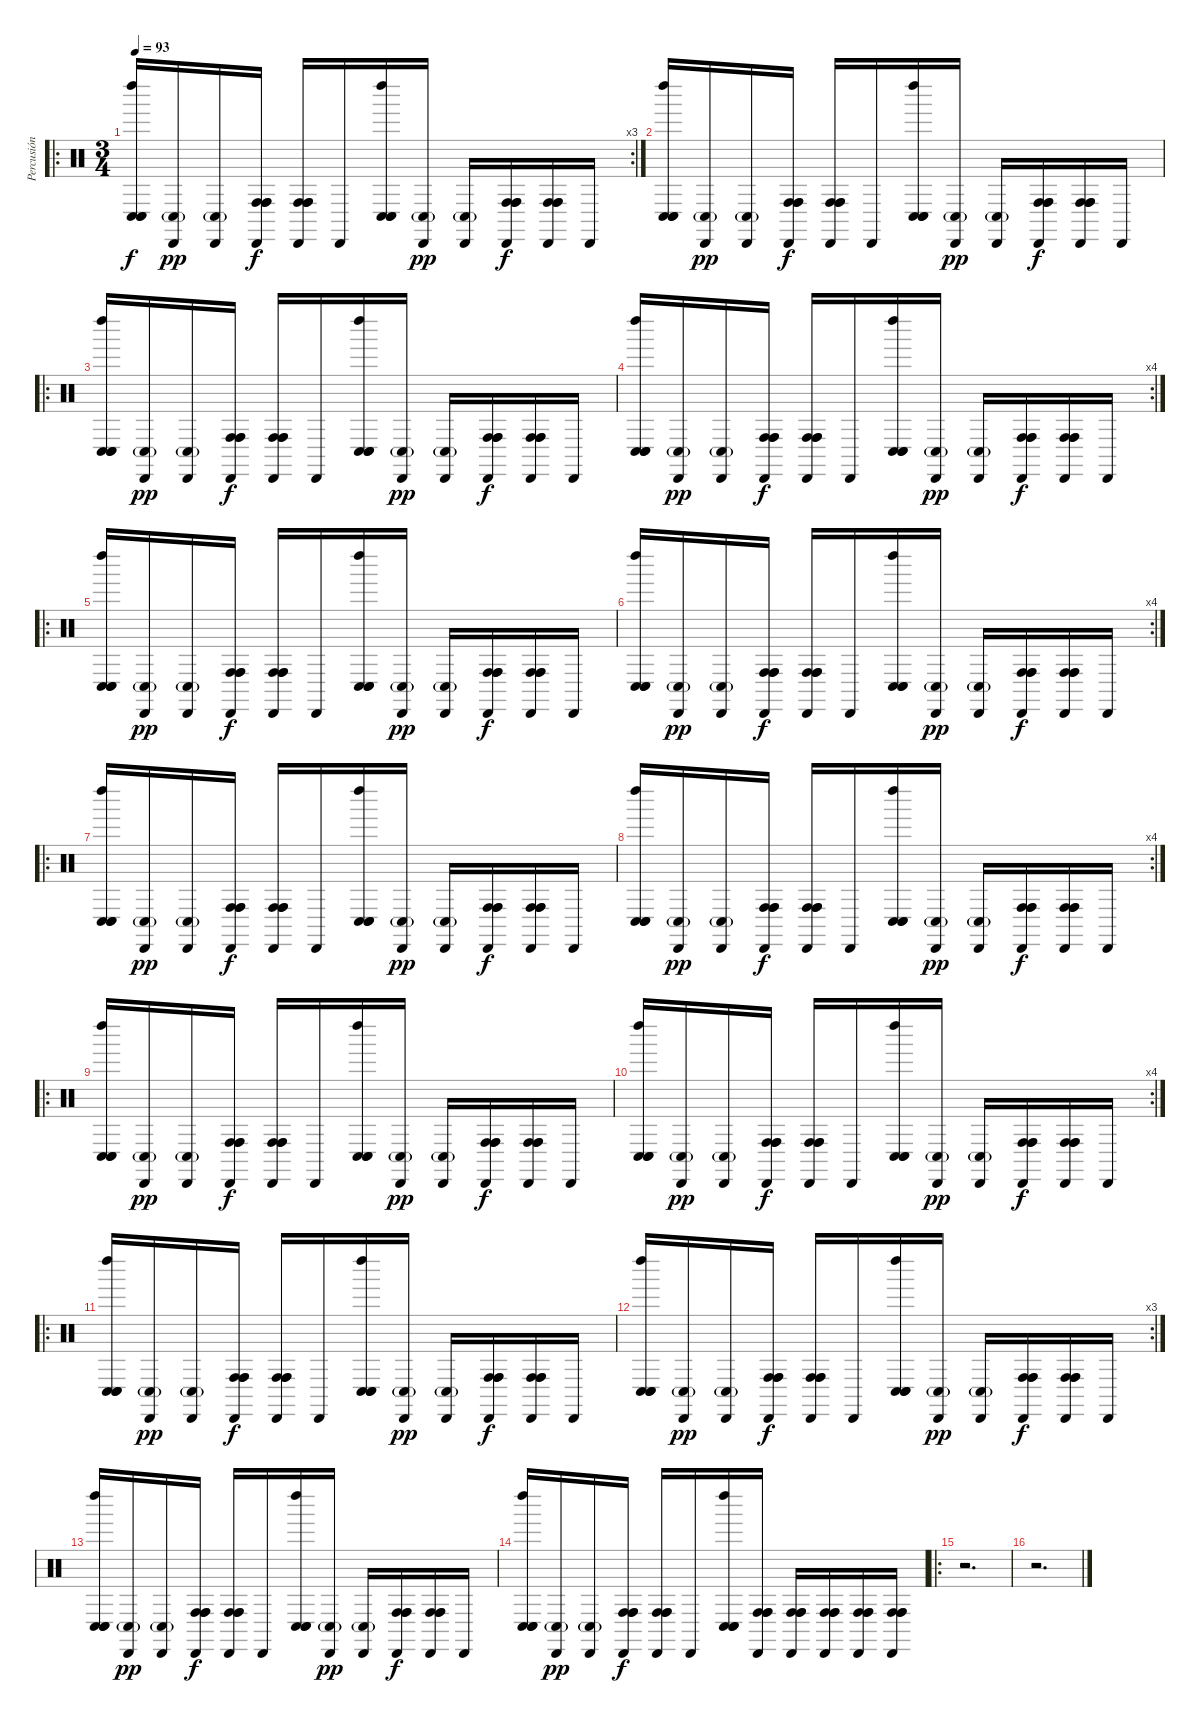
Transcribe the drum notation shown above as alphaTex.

\track ("Percusión" "Percusión") {instrument percussion}
\staff {score}
\articulation defaults
\ro
\rc 3
\ts (3 4)
\tempo 93
\clef neutral
\ks c
("Left Maraca (hit)" "Conga low (hit)" "Conga low (hit)" "Conga low (hit)").16{dy f} ("Cabasa (hit)" "Conga low (hit)"{g}).16{dy pp} ("Cabasa (hit)" "Conga low (hit)"{g}).16 ("Cabasa (hit)" "Conga high (hit)" "Conga high (hit)" "Conga high (hit)").16{dy f} ("Cabasa (hit)" "Conga high (hit)" "Conga high (hit)" "Conga high (hit)").16 "Cabasa (hit)".16 ("Left Maraca (hit)" "Conga low (hit)" "Conga low (hit)" "Conga low (hit)").16 ("Cabasa (hit)" "Conga low (hit)"{g}).16{dy pp} ("Cabasa (hit)" "Conga low (hit)"{g}).16 ("Cabasa (hit)" "Conga high (hit)" "Conga high (hit)" "Conga high (hit)").16{dy f} ("Cabasa (hit)" "Conga high (hit)" "Conga high (hit)" "Conga high (hit)").16 "Cabasa (hit)".16 |
("Left Maraca (hit)" "Conga low (hit)" "Conga low (hit)" "Conga low (hit)").16 ("Cabasa (hit)" "Conga low (hit)"{g}).16{dy pp} ("Cabasa (hit)" "Conga low (hit)"{g}).16 ("Cabasa (hit)" "Conga high (hit)" "Conga high (hit)" "Conga high (hit)").16{dy f} ("Cabasa (hit)" "Conga high (hit)" "Conga high (hit)" "Conga high (hit)").16 "Cabasa (hit)".16 ("Left Maraca (hit)" "Conga low (hit)" "Conga low (hit)" "Conga low (hit)").16 ("Cabasa (hit)" "Conga low (hit)"{g}).16{dy pp} ("Cabasa (hit)" "Conga low (hit)"{g}).16 ("Cabasa (hit)" "Conga high (hit)" "Conga high (hit)" "Conga high (hit)").16{dy f} ("Cabasa (hit)" "Conga high (hit)" "Conga high (hit)" "Conga high (hit)").16 "Cabasa (hit)".16 |
\ro
("Left Maraca (hit)" "Conga low (hit)" "Conga low (hit)" "Conga low (hit)").16 ("Cabasa (hit)" "Conga low (hit)"{g}).16{dy pp} ("Cabasa (hit)" "Conga low (hit)"{g}).16 ("Cabasa (hit)" "Conga high (hit)" "Conga high (hit)" "Conga high (hit)").16{dy f} ("Cabasa (hit)" "Conga high (hit)" "Conga high (hit)" "Conga high (hit)").16 "Cabasa (hit)".16 ("Left Maraca (hit)" "Conga low (hit)" "Conga low (hit)" "Conga low (hit)").16 ("Cabasa (hit)" "Conga low (hit)"{g}).16{dy pp} ("Cabasa (hit)" "Conga low (hit)"{g}).16 ("Cabasa (hit)" "Conga high (hit)" "Conga high (hit)" "Conga high (hit)").16{dy f} ("Cabasa (hit)" "Conga high (hit)" "Conga high (hit)" "Conga high (hit)").16 "Cabasa (hit)".16 |
\rc 4
("Left Maraca (hit)" "Conga low (hit)" "Conga low (hit)" "Conga low (hit)").16 ("Cabasa (hit)" "Conga low (hit)"{g}).16{dy pp} ("Cabasa (hit)" "Conga low (hit)"{g}).16 ("Cabasa (hit)" "Conga high (hit)" "Conga high (hit)" "Conga high (hit)").16{dy f} ("Cabasa (hit)" "Conga high (hit)" "Conga high (hit)" "Conga high (hit)").16 "Cabasa (hit)".16 ("Left Maraca (hit)" "Conga low (hit)" "Conga low (hit)" "Conga low (hit)").16 ("Cabasa (hit)" "Conga low (hit)"{g}).16{dy pp} ("Cabasa (hit)" "Conga low (hit)"{g}).16 ("Cabasa (hit)" "Conga high (hit)" "Conga high (hit)" "Conga high (hit)").16{dy f} ("Cabasa (hit)" "Conga high (hit)" "Conga high (hit)" "Conga high (hit)").16 "Cabasa (hit)".16 |
\ro
("Left Maraca (hit)" "Conga low (hit)" "Conga low (hit)" "Conga low (hit)").16 ("Cabasa (hit)" "Conga low (hit)"{g}).16{dy pp} ("Cabasa (hit)" "Conga low (hit)"{g}).16 ("Cabasa (hit)" "Conga high (hit)" "Conga high (hit)" "Conga high (hit)").16{dy f} ("Cabasa (hit)" "Conga high (hit)" "Conga high (hit)" "Conga high (hit)").16 "Cabasa (hit)".16 ("Left Maraca (hit)" "Conga low (hit)" "Conga low (hit)" "Conga low (hit)").16 ("Cabasa (hit)" "Conga low (hit)"{g}).16{dy pp} ("Cabasa (hit)" "Conga low (hit)"{g}).16 ("Cabasa (hit)" "Conga high (hit)" "Conga high (hit)" "Conga high (hit)").16{dy f} ("Cabasa (hit)" "Conga high (hit)" "Conga high (hit)" "Conga high (hit)").16 "Cabasa (hit)".16 |
\rc 4
("Left Maraca (hit)" "Conga low (hit)" "Conga low (hit)" "Conga low (hit)").16 ("Cabasa (hit)" "Conga low (hit)"{g}).16{dy pp} ("Cabasa (hit)" "Conga low (hit)"{g}).16 ("Cabasa (hit)" "Conga high (hit)" "Conga high (hit)" "Conga high (hit)").16{dy f} ("Cabasa (hit)" "Conga high (hit)" "Conga high (hit)" "Conga high (hit)").16 "Cabasa (hit)".16 ("Left Maraca (hit)" "Conga low (hit)" "Conga low (hit)" "Conga low (hit)").16 ("Cabasa (hit)" "Conga low (hit)"{g}).16{dy pp} ("Cabasa (hit)" "Conga low (hit)"{g}).16 ("Cabasa (hit)" "Conga high (hit)" "Conga high (hit)" "Conga high (hit)").16{dy f} ("Cabasa (hit)" "Conga high (hit)" "Conga high (hit)" "Conga high (hit)").16 "Cabasa (hit)".16 |
\ro
("Left Maraca (hit)" "Conga low (hit)" "Conga low (hit)" "Conga low (hit)").16 ("Cabasa (hit)" "Conga low (hit)"{g}).16{dy pp} ("Cabasa (hit)" "Conga low (hit)"{g}).16 ("Cabasa (hit)" "Conga high (hit)" "Conga high (hit)" "Conga high (hit)").16{dy f} ("Cabasa (hit)" "Conga high (hit)" "Conga high (hit)" "Conga high (hit)").16 "Cabasa (hit)".16 ("Left Maraca (hit)" "Conga low (hit)" "Conga low (hit)" "Conga low (hit)").16 ("Cabasa (hit)" "Conga low (hit)"{g}).16{dy pp} ("Cabasa (hit)" "Conga low (hit)"{g}).16 ("Cabasa (hit)" "Conga high (hit)" "Conga high (hit)" "Conga high (hit)").16{dy f} ("Cabasa (hit)" "Conga high (hit)" "Conga high (hit)" "Conga high (hit)").16 "Cabasa (hit)".16 |
\rc 4
("Left Maraca (hit)" "Conga low (hit)" "Conga low (hit)" "Conga low (hit)").16 ("Cabasa (hit)" "Conga low (hit)"{g}).16{dy pp} ("Cabasa (hit)" "Conga low (hit)"{g}).16 ("Cabasa (hit)" "Conga high (hit)" "Conga high (hit)" "Conga high (hit)").16{dy f} ("Cabasa (hit)" "Conga high (hit)" "Conga high (hit)" "Conga high (hit)").16 "Cabasa (hit)".16 ("Left Maraca (hit)" "Conga low (hit)" "Conga low (hit)" "Conga low (hit)").16 ("Cabasa (hit)" "Conga low (hit)"{g}).16{dy pp} ("Cabasa (hit)" "Conga low (hit)"{g}).16 ("Cabasa (hit)" "Conga high (hit)" "Conga high (hit)" "Conga high (hit)").16{dy f} ("Cabasa (hit)" "Conga high (hit)" "Conga high (hit)" "Conga high (hit)").16 "Cabasa (hit)".16 |
\ro
("Left Maraca (hit)" "Conga low (hit)" "Conga low (hit)" "Conga low (hit)").16 ("Cabasa (hit)" "Conga low (hit)"{g}).16{dy pp} ("Cabasa (hit)" "Conga low (hit)"{g}).16 ("Cabasa (hit)" "Conga high (hit)" "Conga high (hit)" "Conga high (hit)").16{dy f} ("Cabasa (hit)" "Conga high (hit)" "Conga high (hit)" "Conga high (hit)").16 "Cabasa (hit)".16 ("Left Maraca (hit)" "Conga low (hit)" "Conga low (hit)" "Conga low (hit)").16 ("Cabasa (hit)" "Conga low (hit)"{g}).16{dy pp} ("Cabasa (hit)" "Conga low (hit)"{g}).16 ("Cabasa (hit)" "Conga high (hit)" "Conga high (hit)" "Conga high (hit)").16{dy f} ("Cabasa (hit)" "Conga high (hit)" "Conga high (hit)" "Conga high (hit)").16 "Cabasa (hit)".16 |
\rc 4
("Left Maraca (hit)" "Conga low (hit)" "Conga low (hit)" "Conga low (hit)").16 ("Cabasa (hit)" "Conga low (hit)"{g}).16{dy pp} ("Cabasa (hit)" "Conga low (hit)"{g}).16 ("Cabasa (hit)" "Conga high (hit)" "Conga high (hit)" "Conga high (hit)").16{dy f} ("Cabasa (hit)" "Conga high (hit)" "Conga high (hit)" "Conga high (hit)").16 "Cabasa (hit)".16 ("Left Maraca (hit)" "Conga low (hit)" "Conga low (hit)" "Conga low (hit)").16 ("Cabasa (hit)" "Conga low (hit)"{g}).16{dy pp} ("Cabasa (hit)" "Conga low (hit)"{g}).16 ("Cabasa (hit)" "Conga high (hit)" "Conga high (hit)" "Conga high (hit)").16{dy f} ("Cabasa (hit)" "Conga high (hit)" "Conga high (hit)" "Conga high (hit)").16 "Cabasa (hit)".16 |
\ro
("Left Maraca (hit)" "Conga low (hit)" "Conga low (hit)" "Conga low (hit)").16 ("Cabasa (hit)" "Conga low (hit)"{g}).16{dy pp} ("Cabasa (hit)" "Conga low (hit)"{g}).16 ("Cabasa (hit)" "Conga high (hit)" "Conga high (hit)" "Conga high (hit)").16{dy f} ("Cabasa (hit)" "Conga high (hit)" "Conga high (hit)" "Conga high (hit)").16 "Cabasa (hit)".16 ("Left Maraca (hit)" "Conga low (hit)" "Conga low (hit)" "Conga low (hit)").16 ("Cabasa (hit)" "Conga low (hit)"{g}).16{dy pp} ("Cabasa (hit)" "Conga low (hit)"{g}).16 ("Cabasa (hit)" "Conga high (hit)" "Conga high (hit)" "Conga high (hit)").16{dy f} ("Cabasa (hit)" "Conga high (hit)" "Conga high (hit)" "Conga high (hit)").16 "Cabasa (hit)".16 |
\rc 3
("Left Maraca (hit)" "Conga low (hit)" "Conga low (hit)" "Conga low (hit)").16 ("Cabasa (hit)" "Conga low (hit)"{g}).16{dy pp} ("Cabasa (hit)" "Conga low (hit)"{g}).16 ("Cabasa (hit)" "Conga high (hit)" "Conga high (hit)" "Conga high (hit)").16{dy f} ("Cabasa (hit)" "Conga high (hit)" "Conga high (hit)" "Conga high (hit)").16 "Cabasa (hit)".16 ("Left Maraca (hit)" "Conga low (hit)" "Conga low (hit)" "Conga low (hit)").16 ("Cabasa (hit)" "Conga low (hit)"{g}).16{dy pp} ("Cabasa (hit)" "Conga low (hit)"{g}).16 ("Cabasa (hit)" "Conga high (hit)" "Conga high (hit)" "Conga high (hit)").16{dy f} ("Cabasa (hit)" "Conga high (hit)" "Conga high (hit)" "Conga high (hit)").16 "Cabasa (hit)".16 |
("Left Maraca (hit)" "Conga low (hit)" "Conga low (hit)" "Conga low (hit)").16 ("Cabasa (hit)" "Conga low (hit)"{g}).16{dy pp} ("Cabasa (hit)" "Conga low (hit)"{g}).16 ("Cabasa (hit)" "Conga high (hit)" "Conga high (hit)" "Conga high (hit)").16{dy f} ("Cabasa (hit)" "Conga high (hit)" "Conga high (hit)" "Conga high (hit)").16 "Cabasa (hit)".16 ("Left Maraca (hit)" "Conga low (hit)" "Conga low (hit)" "Conga low (hit)").16 ("Cabasa (hit)" "Conga low (hit)"{g}).16{dy pp} ("Cabasa (hit)" "Conga low (hit)"{g}).16 ("Cabasa (hit)" "Conga high (hit)" "Conga high (hit)" "Conga high (hit)").16{dy f} ("Cabasa (hit)" "Conga high (hit)" "Conga high (hit)" "Conga high (hit)").16 "Cabasa (hit)".16 |
("Left Maraca (hit)" "Conga low (hit)" "Conga low (hit)" "Conga low (hit)").16 ("Cabasa (hit)" "Conga low (hit)"{g}).16{dy pp} ("Cabasa (hit)" "Conga low (hit)"{g}).16 ("Cabasa (hit)" "Conga high (hit)" "Conga high (hit)" "Conga high (hit)").16{dy f} ("Cabasa (hit)" "Conga high (hit)" "Conga high (hit)" "Conga high (hit)").16 "Cabasa (hit)".16 ("Left Maraca (hit)" "Conga low (hit)" "Conga low (hit)" "Conga low (hit)").16 ("Cabasa (hit)" "Conga high (hit)" "Conga high (hit)" "Conga high (hit)").16 ("Cabasa (hit)" "Conga high (hit)" "Conga high (hit)" "Conga high (hit)").16 ("Cabasa (hit)" "Conga high (hit)" "Conga high (hit)" "Conga high (hit)").16 ("Cabasa (hit)" "Conga high (hit)" "Conga high (hit)" "Conga high (hit)").16 ("Cabasa (hit)" "Conga high (hit)" "Conga high (hit)" "Conga high (hit)").16 |
\ro
r.2{d} |
r.2{d}
